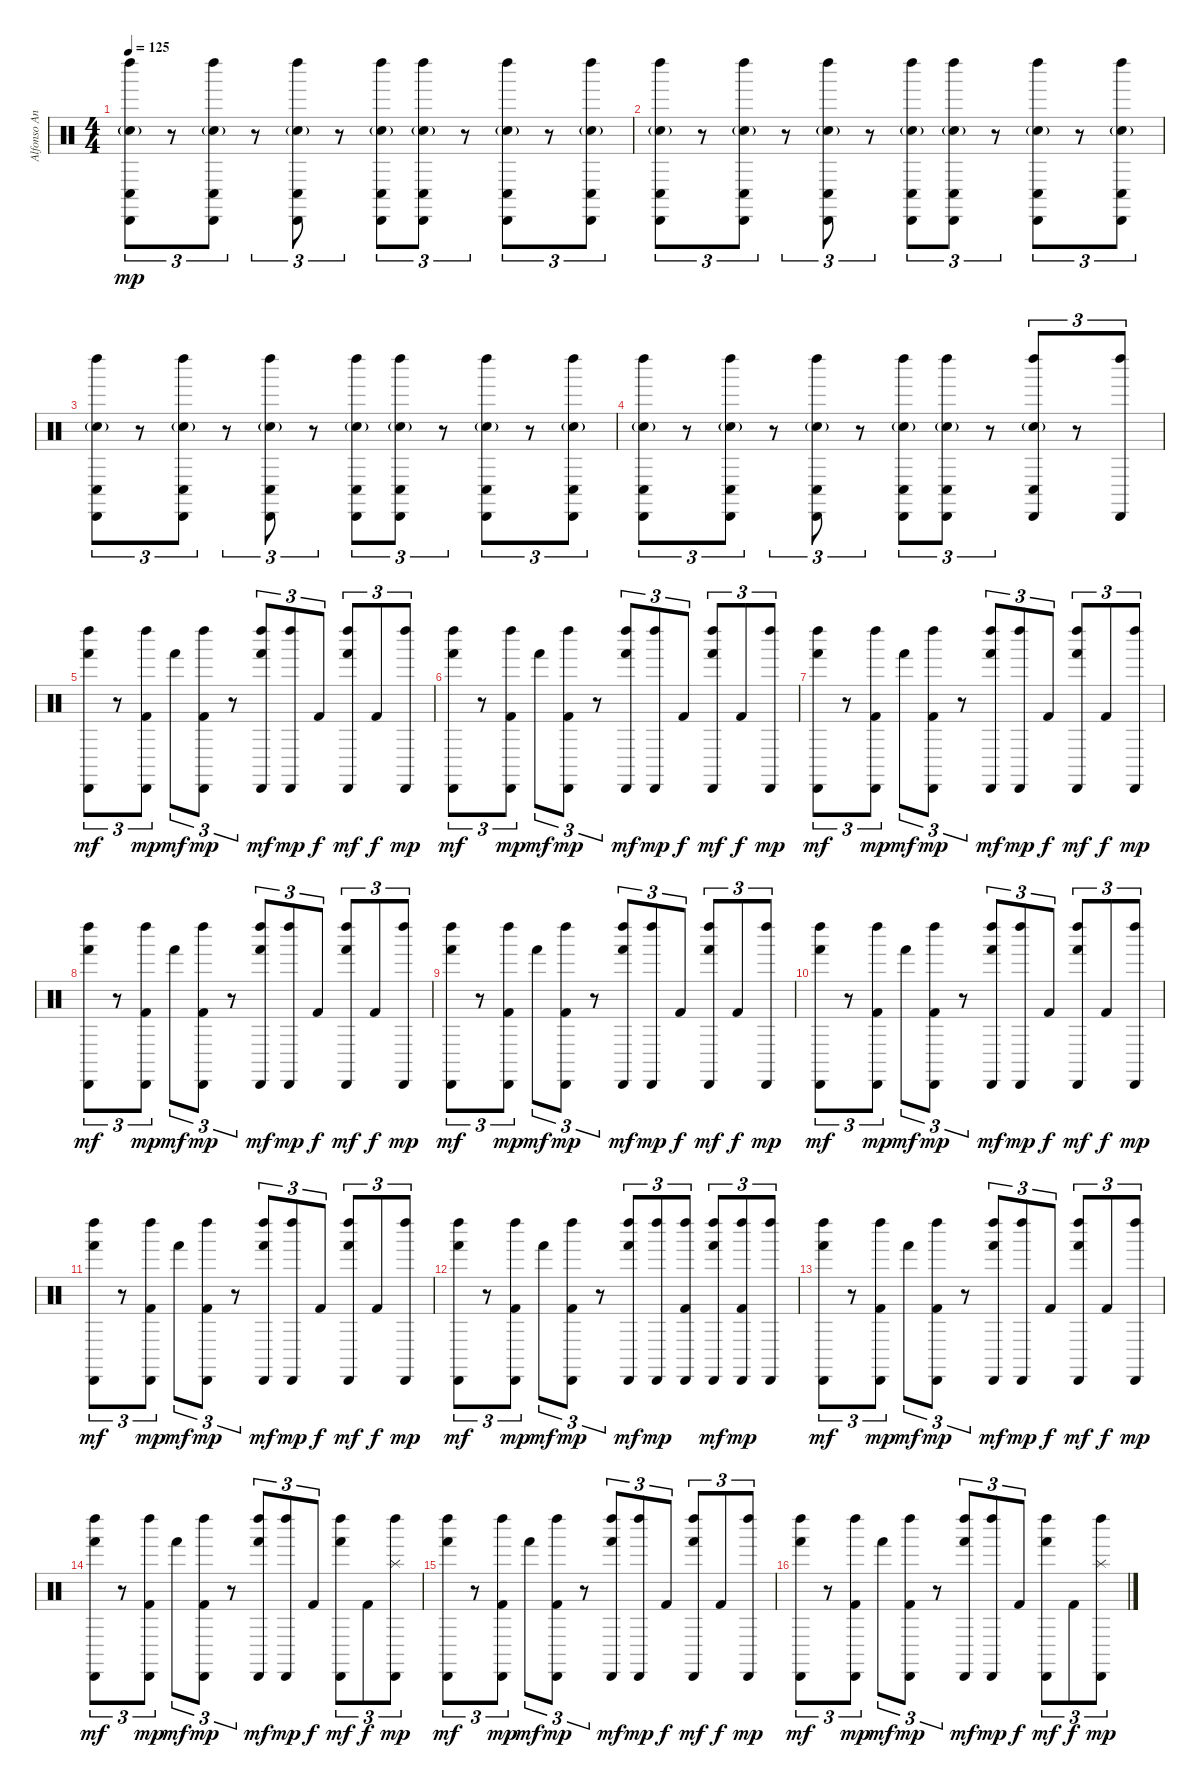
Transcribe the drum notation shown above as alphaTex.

\track ("Alfonso Andre" "Alfonso An") {instrument percussion}
\staff {score}
\articulation defaults
\ts (4 4)
\tempo 125
\clef neutral
\ks c
("Left Maraca (hit)" "Cabasa (hit)" "Conga low (hit)" "Electric Snare (hit)"{g}).8{tu (3 2) dy mp} r.8{tu (3 2)} ("Left Maraca (hit)" "Cabasa (hit)" "Conga low (hit)" "Electric Snare (hit)"{g}).8{tu (3 2)} r.8{tu (3 2)} ("Left Maraca (hit)" "Cabasa (hit)" "Conga low (hit)" "Electric Snare (hit)"{g}).8{tu (3 2)} r.8{tu (3 2)} ("Left Maraca (hit)" "Cabasa (hit)" "Conga low (hit)" "Electric Snare (hit)"{g}).8{tu (3 2)} ("Left Maraca (hit)" "Cabasa (hit)" "Conga low (hit)" "Electric Snare (hit)"{g}).8{tu (3 2)} r.8{tu (3 2)} ("Left Maraca (hit)" "Cabasa (hit)" "Conga low (hit)" "Electric Snare (hit)"{g}).8{tu (3 2)} r.8{tu (3 2)} ("Left Maraca (hit)" "Cabasa (hit)" "Conga low (hit)" "Electric Snare (hit)"{g}).8{tu (3 2)} |
("Left Maraca (hit)" "Cabasa (hit)" "Conga low (hit)" "Electric Snare (hit)"{g}).8{tu (3 2)} r.8{tu (3 2)} ("Left Maraca (hit)" "Cabasa (hit)" "Conga low (hit)" "Electric Snare (hit)"{g}).8{tu (3 2)} r.8{tu (3 2)} ("Left Maraca (hit)" "Cabasa (hit)" "Conga low (hit)" "Electric Snare (hit)"{g}).8{tu (3 2)} r.8{tu (3 2)} ("Left Maraca (hit)" "Cabasa (hit)" "Conga low (hit)" "Electric Snare (hit)"{g}).8{tu (3 2)} ("Left Maraca (hit)" "Cabasa (hit)" "Conga low (hit)" "Electric Snare (hit)"{g}).8{tu (3 2)} r.8{tu (3 2)} ("Left Maraca (hit)" "Cabasa (hit)" "Conga low (hit)" "Electric Snare (hit)"{g}).8{tu (3 2)} r.8{tu (3 2)} ("Left Maraca (hit)" "Cabasa (hit)" "Conga low (hit)" "Electric Snare (hit)"{g}).8{tu (3 2)} |
("Left Maraca (hit)" "Cabasa (hit)" "Conga low (hit)" "Electric Snare (hit)"{g}).8{tu (3 2)} r.8{tu (3 2)} ("Left Maraca (hit)" "Cabasa (hit)" "Conga low (hit)" "Electric Snare (hit)"{g}).8{tu (3 2)} r.8{tu (3 2)} ("Left Maraca (hit)" "Cabasa (hit)" "Conga low (hit)" "Electric Snare (hit)"{g}).8{tu (3 2)} r.8{tu (3 2)} ("Left Maraca (hit)" "Cabasa (hit)" "Conga low (hit)" "Electric Snare (hit)"{g}).8{tu (3 2)} ("Left Maraca (hit)" "Cabasa (hit)" "Conga low (hit)" "Electric Snare (hit)"{g}).8{tu (3 2)} r.8{tu (3 2)} ("Left Maraca (hit)" "Cabasa (hit)" "Conga low (hit)" "Electric Snare (hit)"{g}).8{tu (3 2)} r.8{tu (3 2)} ("Left Maraca (hit)" "Cabasa (hit)" "Conga low (hit)" "Electric Snare (hit)"{g}).8{tu (3 2)} |
("Left Maraca (hit)" "Cabasa (hit)" "Conga low (hit)" "Electric Snare (hit)"{g}).8{tu (3 2)} r.8{tu (3 2)} ("Left Maraca (hit)" "Cabasa (hit)" "Conga low (hit)" "Electric Snare (hit)"{g}).8{tu (3 2)} r.8{tu (3 2)} ("Left Maraca (hit)" "Cabasa (hit)" "Conga low (hit)" "Electric Snare (hit)"{g}).8{tu (3 2)} r.8{tu (3 2)} ("Left Maraca (hit)" "Cabasa (hit)" "Conga low (hit)" "Electric Snare (hit)"{g}).8{tu (3 2)} ("Left Maraca (hit)" "Cabasa (hit)" "Conga low (hit)" "Electric Snare (hit)"{g}).8{tu (3 2)} r.8{tu (3 2)} ("Left Maraca (hit)" "Cabasa (hit)" "Conga low (hit)" "Electric Snare (hit)"{g}).8{tu (3 2)} r.8{tu (3 2)} ("Left Maraca (hit)" "Cabasa (hit)").8{tu (3 2)} |
("Left Maraca (hit)" "Cabasa (hit)" "Hand (hit)").8{tu (3 2) dy mf} r.8{tu (3 2)} ("Left Maraca (hit)" "Cabasa (hit)" "Kick (hit) 2").8{tu (3 2) dy mp} "Hand (hit)".8{tu (3 2) dy mf} ("Left Maraca (hit)" "Cabasa (hit)" "Kick (hit) 2").8{tu (3 2) dy mp} r.8{tu (3 2)} ("Left Maraca (hit)" "Cabasa (hit)" "Hand (hit)").8{tu (3 2) dy mf} ("Left Maraca (hit)" "Cabasa (hit)").8{tu (3 2) dy mp} "Kick (hit) 2".8{tu (3 2) dy f} ("Left Maraca (hit)" "Cabasa (hit)" "Hand (hit)").8{tu (3 2) dy mf} "Kick (hit) 2".8{tu (3 2) dy f} ("Left Maraca (hit)" "Cabasa (hit)").8{tu (3 2) dy mp} |
("Left Maraca (hit)" "Cabasa (hit)" "Hand (hit)").8{tu (3 2) dy mf} r.8{tu (3 2)} ("Left Maraca (hit)" "Cabasa (hit)" "Kick (hit) 2").8{tu (3 2) dy mp} "Hand (hit)".8{tu (3 2) dy mf} ("Left Maraca (hit)" "Cabasa (hit)" "Kick (hit) 2").8{tu (3 2) dy mp} r.8{tu (3 2)} ("Left Maraca (hit)" "Cabasa (hit)" "Hand (hit)").8{tu (3 2) dy mf} ("Left Maraca (hit)" "Cabasa (hit)").8{tu (3 2) dy mp} "Kick (hit) 2".8{tu (3 2) dy f} ("Left Maraca (hit)" "Cabasa (hit)" "Hand (hit)").8{tu (3 2) dy mf} "Kick (hit) 2".8{tu (3 2) dy f} ("Left Maraca (hit)" "Cabasa (hit)").8{tu (3 2) dy mp} |
("Left Maraca (hit)" "Cabasa (hit)" "Hand (hit)").8{tu (3 2) dy mf} r.8{tu (3 2)} ("Left Maraca (hit)" "Cabasa (hit)" "Kick (hit) 2").8{tu (3 2) dy mp} "Hand (hit)".8{tu (3 2) dy mf} ("Left Maraca (hit)" "Cabasa (hit)" "Kick (hit) 2").8{tu (3 2) dy mp} r.8{tu (3 2)} ("Left Maraca (hit)" "Cabasa (hit)" "Hand (hit)").8{tu (3 2) dy mf} ("Left Maraca (hit)" "Cabasa (hit)").8{tu (3 2) dy mp} "Kick (hit) 2".8{tu (3 2) dy f} ("Left Maraca (hit)" "Cabasa (hit)" "Hand (hit)").8{tu (3 2) dy mf} "Kick (hit) 2".8{tu (3 2) dy f} ("Left Maraca (hit)" "Cabasa (hit)").8{tu (3 2) dy mp} |
("Left Maraca (hit)" "Cabasa (hit)" "Hand (hit)").8{tu (3 2) dy mf} r.8{tu (3 2)} ("Left Maraca (hit)" "Cabasa (hit)" "Kick (hit) 2").8{tu (3 2) dy mp} "Hand (hit)".8{tu (3 2) dy mf} ("Left Maraca (hit)" "Cabasa (hit)" "Kick (hit) 2").8{tu (3 2) dy mp} r.8{tu (3 2)} ("Left Maraca (hit)" "Cabasa (hit)" "Hand (hit)").8{tu (3 2) dy mf} ("Left Maraca (hit)" "Cabasa (hit)").8{tu (3 2) dy mp} "Kick (hit) 2".8{tu (3 2) dy f} ("Left Maraca (hit)" "Cabasa (hit)" "Hand (hit)").8{tu (3 2) dy mf} "Kick (hit) 2".8{tu (3 2) dy f} ("Left Maraca (hit)" "Cabasa (hit)").8{tu (3 2) dy mp} |
("Left Maraca (hit)" "Cabasa (hit)" "Hand (hit)").8{tu (3 2) dy mf} r.8{tu (3 2)} ("Left Maraca (hit)" "Cabasa (hit)" "Kick (hit) 2").8{tu (3 2) dy mp} "Hand (hit)".8{tu (3 2) dy mf} ("Left Maraca (hit)" "Cabasa (hit)" "Kick (hit) 2").8{tu (3 2) dy mp} r.8{tu (3 2)} ("Left Maraca (hit)" "Cabasa (hit)" "Hand (hit)").8{tu (3 2) dy mf} ("Left Maraca (hit)" "Cabasa (hit)").8{tu (3 2) dy mp} "Kick (hit) 2".8{tu (3 2) dy f} ("Left Maraca (hit)" "Cabasa (hit)" "Hand (hit)").8{tu (3 2) dy mf} "Kick (hit) 2".8{tu (3 2) dy f} ("Left Maraca (hit)" "Cabasa (hit)").8{tu (3 2) dy mp} |
("Left Maraca (hit)" "Cabasa (hit)" "Hand (hit)").8{tu (3 2) dy mf} r.8{tu (3 2)} ("Left Maraca (hit)" "Cabasa (hit)" "Kick (hit) 2").8{tu (3 2) dy mp} "Hand (hit)".8{tu (3 2) dy mf} ("Left Maraca (hit)" "Cabasa (hit)" "Kick (hit) 2").8{tu (3 2) dy mp} r.8{tu (3 2)} ("Left Maraca (hit)" "Cabasa (hit)" "Hand (hit)").8{tu (3 2) dy mf} ("Left Maraca (hit)" "Cabasa (hit)").8{tu (3 2) dy mp} "Kick (hit) 2".8{tu (3 2) dy f} ("Left Maraca (hit)" "Cabasa (hit)" "Hand (hit)").8{tu (3 2) dy mf} "Kick (hit) 2".8{tu (3 2) dy f} ("Left Maraca (hit)" "Cabasa (hit)").8{tu (3 2) dy mp} |
("Left Maraca (hit)" "Cabasa (hit)" "Hand (hit)").8{tu (3 2) dy mf} r.8{tu (3 2)} ("Left Maraca (hit)" "Cabasa (hit)" "Kick (hit) 2").8{tu (3 2) dy mp} "Hand (hit)".8{tu (3 2) dy mf} ("Left Maraca (hit)" "Cabasa (hit)" "Kick (hit) 2").8{tu (3 2) dy mp} r.8{tu (3 2)} ("Left Maraca (hit)" "Cabasa (hit)" "Hand (hit)").8{tu (3 2) dy mf} ("Left Maraca (hit)" "Cabasa (hit)").8{tu (3 2) dy mp} "Kick (hit) 2".8{tu (3 2) dy f} ("Left Maraca (hit)" "Cabasa (hit)" "Hand (hit)").8{tu (3 2) dy mf} "Kick (hit) 2".8{tu (3 2) dy f} ("Left Maraca (hit)" "Cabasa (hit)").8{tu (3 2) dy mp} |
("Left Maraca (hit)" "Cabasa (hit)" "Hand (hit)").8{tu (3 2) dy mf} r.8{tu (3 2)} ("Left Maraca (hit)" "Cabasa (hit)" "Kick (hit) 2").8{tu (3 2) dy mp} "Hand (hit)".8{tu (3 2) dy mf} ("Left Maraca (hit)" "Cabasa (hit)" "Kick (hit) 2").8{tu (3 2) dy mp} r.8{tu (3 2)} ("Left Maraca (hit)" "Cabasa (hit)" "Hand (hit)").8{tu (3 2) dy mf} ("Left Maraca (hit)" "Cabasa (hit)").8{tu (3 2) dy mp} ("Left Maraca (hit)" "Cabasa (hit)" "Kick (hit) 2").8{tu (3 2)} ("Left Maraca (hit)" "Cabasa (hit)" "Hand (hit)").8{tu (3 2) dy mf} ("Left Maraca (hit)" "Cabasa (hit)" "Kick (hit) 2").8{tu (3 2) dy mp} ("Left Maraca (hit)" "Cabasa (hit)").8{tu (3 2)} |
("Left Maraca (hit)" "Cabasa (hit)" "Hand (hit)").8{tu (3 2) dy mf} r.8{tu (3 2)} ("Left Maraca (hit)" "Cabasa (hit)" "Kick (hit) 2").8{tu (3 2) dy mp} "Hand (hit)".8{tu (3 2) dy mf} ("Left Maraca (hit)" "Cabasa (hit)" "Kick (hit) 2").8{tu (3 2) dy mp} r.8{tu (3 2)} ("Left Maraca (hit)" "Cabasa (hit)" "Hand (hit)").8{tu (3 2) dy mf} ("Left Maraca (hit)" "Cabasa (hit)").8{tu (3 2) dy mp} "Kick (hit) 2".8{tu (3 2) dy f} ("Left Maraca (hit)" "Cabasa (hit)" "Hand (hit)").8{tu (3 2) dy mf} "Kick (hit) 2".8{tu (3 2) dy f} ("Left Maraca (hit)" "Cabasa (hit)").8{tu (3 2) dy mp} |
("Left Maraca (hit)" "Cabasa (hit)" "Hand (hit)").8{tu (3 2) dy mf} r.8{tu (3 2)} ("Left Maraca (hit)" "Cabasa (hit)" "Kick (hit) 2").8{tu (3 2) dy mp} "Hand (hit)".8{tu (3 2) dy mf} ("Left Maraca (hit)" "Cabasa (hit)" "Kick (hit) 2").8{tu (3 2) dy mp} r.8{tu (3 2)} ("Left Maraca (hit)" "Cabasa (hit)" "Hand (hit)").8{tu (3 2) dy mf} ("Left Maraca (hit)" "Cabasa (hit)").8{tu (3 2) dy mp} "Kick (hit) 2".8{tu (3 2) dy f} ("Left Maraca (hit)" "Cabasa (hit)" "Hand (hit)").8{tu (3 2) dy mf} "Kick (hit) 2".8{tu (3 2) dy f} ("Left Maraca (hit)" "Cabasa (hit)" "Splash (hit)").8{tu (3 2) dy mp} |
("Left Maraca (hit)" "Cabasa (hit)" "Hand (hit)").8{tu (3 2) dy mf} r.8{tu (3 2)} ("Left Maraca (hit)" "Cabasa (hit)" "Kick (hit) 2").8{tu (3 2) dy mp} "Hand (hit)".8{tu (3 2) dy mf} ("Left Maraca (hit)" "Cabasa (hit)" "Kick (hit) 2").8{tu (3 2) dy mp} r.8{tu (3 2)} ("Left Maraca (hit)" "Cabasa (hit)" "Hand (hit)").8{tu (3 2) dy mf} ("Left Maraca (hit)" "Cabasa (hit)").8{tu (3 2) dy mp} "Kick (hit) 2".8{tu (3 2) dy f} ("Left Maraca (hit)" "Cabasa (hit)" "Hand (hit)").8{tu (3 2) dy mf} "Kick (hit) 2".8{tu (3 2) dy f} ("Left Maraca (hit)" "Cabasa (hit)").8{tu (3 2) dy mp} |
("Left Maraca (hit)" "Cabasa (hit)" "Hand (hit)").8{tu (3 2) dy mf} r.8{tu (3 2)} ("Left Maraca (hit)" "Cabasa (hit)" "Kick (hit) 2").8{tu (3 2) dy mp} "Hand (hit)".8{tu (3 2) dy mf} ("Left Maraca (hit)" "Cabasa (hit)" "Kick (hit) 2").8{tu (3 2) dy mp} r.8{tu (3 2)} ("Left Maraca (hit)" "Cabasa (hit)" "Hand (hit)").8{tu (3 2) dy mf} ("Left Maraca (hit)" "Cabasa (hit)").8{tu (3 2) dy mp} "Kick (hit) 2".8{tu (3 2) dy f} ("Left Maraca (hit)" "Cabasa (hit)" "Hand (hit)").8{tu (3 2) dy mf} "Kick (hit) 2".8{tu (3 2) dy f} ("Left Maraca (hit)" "Cabasa (hit)" "Splash (hit)").8{tu (3 2) dy mp}
